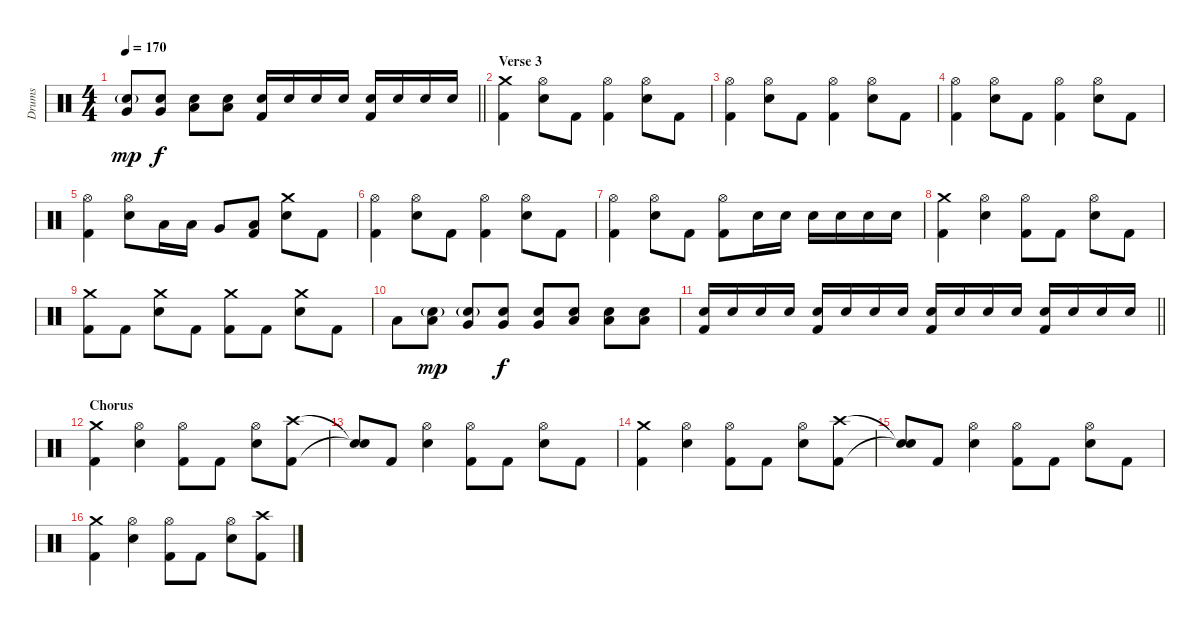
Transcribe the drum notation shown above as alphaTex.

\track ("Drums" "Drums") {instrument percussion}
\staff {score}
\articulation defaults
\ts (4 4)
\tempo 170
\clef neutral
\barLineRight lightlight
\ks c
("Electric Snare (hit)"{g} "Very Low Tom (hit)").8{dy mp} ("Electric Snare (hit)" "Very Low Tom (hit)").8{dy f} ("Electric Snare (hit)" "Low Tom (hit)").8 ("Electric Snare (hit)" "Low Tom (hit)").8 ("Electric Snare (hit)" "Kick (hit) 2").16 "Electric Snare (hit)".16 "Electric Snare (hit)".16 "Electric Snare (hit)".16 ("Electric Snare (hit)" "Kick (hit) 2").16 "Electric Snare (hit)".16 "Electric Snare (hit)".16 "Electric Snare (hit)".16 |
\section ("" "Verse 3")
("Crash medium (hit)" "Kick (hit) 2").4 ("Hi-Hat (open)" "Electric Snare (hit)").8 "Kick (hit) 2".8 ("Hi-Hat (open)" "Kick (hit) 2").4 ("Hi-Hat (open)" "Electric Snare (hit)").8 "Kick (hit) 2".8 |
("Hi-Hat (open)" "Kick (hit) 2").4 ("Hi-Hat (open)" "Electric Snare (hit)").8 "Kick (hit) 2".8 ("Hi-Hat (open)" "Kick (hit) 2").4 ("Hi-Hat (open)" "Electric Snare (hit)").8 "Kick (hit) 2".8 |
("Hi-Hat (open)" "Kick (hit) 2").4 ("Hi-Hat (open)" "Electric Snare (hit)").8 "Kick (hit) 2".8 ("Hi-Hat (open)" "Kick (hit) 2").4 ("Hi-Hat (open)" "Electric Snare (hit)").8 "Kick (hit) 2".8 |
("Hi-Hat (open)" "Kick (hit) 2").4 ("Hi-Hat (open)" "Electric Snare (hit)").8 "Low Tom (hit)".16 "Low Tom (hit)".16 "Very Low Tom (hit)".8 ("Low Floor Tom (hit)" "Kick (hit) 2").8 ("Crash medium (hit)" "Electric Snare (hit)").8 "Kick (hit) 2".8 |
("Hi-Hat (open)" "Kick (hit) 2").4 ("Hi-Hat (open)" "Electric Snare (hit)").8 "Kick (hit) 2".8 ("Hi-Hat (open)" "Kick (hit) 2").4 ("Hi-Hat (open)" "Electric Snare (hit)").8 "Kick (hit) 2".8 |
("Hi-Hat (open)" "Kick (hit) 2").4 ("Hi-Hat (open)" "Electric Snare (hit)").8 "Kick (hit) 2".8 ("Hi-Hat (open)" "Kick (hit) 2").8 "Electric Snare (hit)".16 "Electric Snare (hit)".16 "Electric Snare (hit)".16 "Electric Snare (hit)".16 "Electric Snare (hit)".16 "Electric Snare (hit)".16 |
("Crash medium (hit)" "Kick (hit) 2").4 ("Hi-Hat (open)" "Electric Snare (hit)").4 ("Hi-Hat (open)" "Kick (hit) 2").8 "Kick (hit) 2".8 ("Hi-Hat (open)" "Electric Snare (hit)").8 "Kick (hit) 2".8 |
("Crash medium (hit)" "Kick (hit) 2").8 "Kick (hit) 2".8 ("Crash medium (hit)" "Electric Snare (hit)").8 "Kick (hit) 2".8 ("Crash medium (hit)" "Kick (hit) 2").8 "Kick (hit) 2".8 ("Crash medium (hit)" "Electric Snare (hit)").8 "Kick (hit) 2".8 |
"Low Floor Tom (hit)".8 ("Electric Snare (hit)"{g} "Low Floor Tom (hit)").8{dy mp} ("Electric Snare (hit)"{g} "Very Low Tom (hit)").8 ("Electric Snare (hit)" "Very Low Tom (hit)").8{dy f} ("Electric Snare (hit)" "Very Low Tom (hit)").8 ("Electric Snare (hit)" "Low Tom (hit)").8 ("Electric Snare (hit)" "Low Tom (hit)").8 ("Electric Snare (hit)" "Low Tom (hit)").8 |
\barLineRight lightlight
("Electric Snare (hit)" "Kick (hit) 2").16 "Electric Snare (hit)".16 "Electric Snare (hit)".16 "Electric Snare (hit)".16 ("Electric Snare (hit)" "Kick (hit) 2").16 "Electric Snare (hit)".16 "Electric Snare (hit)".16 "Electric Snare (hit)".16 ("Electric Snare (hit)" "Kick (hit) 2").16 "Electric Snare (hit)".16 "Electric Snare (hit)".16 "Electric Snare (hit)".16 ("Electric Snare (hit)" "Kick (hit) 2").16 "Electric Snare (hit)".16 "Electric Snare (hit)".16 "Electric Snare (hit)".16 |
\section ("" "Chorus")
("Crash medium (hit)" "Kick (hit) 2").4 ("Hi-Hat (open)" "Electric Snare (hit)").4 ("Hi-Hat (open)" "Kick (hit) 2").8 "Kick (hit) 2".8 ("Hi-Hat (open)" "Electric Snare (hit)").8 ("Crash high (hit)" "Kick (hit) 2").8 |
("Snare (hit)"{t} "Snare (hit)"{t}).8 "Kick (hit) 2".8 ("Hi-Hat (open)" "Electric Snare (hit)").4 ("Hi-Hat (open)" "Kick (hit) 2").8 "Kick (hit) 2".8 ("Hi-Hat (open)" "Electric Snare (hit)").8 "Kick (hit) 2".8 |
("Crash medium (hit)" "Kick (hit) 2").4 ("Hi-Hat (open)" "Electric Snare (hit)").4 ("Hi-Hat (open)" "Kick (hit) 2").8 "Kick (hit) 2".8 ("Hi-Hat (open)" "Electric Snare (hit)").8 ("Crash high (hit)" "Kick (hit) 2").8 |
("Snare (hit)"{t} "Snare (hit)"{t}).8 "Kick (hit) 2".8 ("Hi-Hat (open)" "Electric Snare (hit)").4 ("Hi-Hat (open)" "Kick (hit) 2").8 "Kick (hit) 2".8 ("Hi-Hat (open)" "Electric Snare (hit)").8 "Kick (hit) 2".8 |
("Crash medium (hit)" "Kick (hit) 2").4 ("Hi-Hat (open)" "Electric Snare (hit)").4 ("Hi-Hat (open)" "Kick (hit) 2").8 "Kick (hit) 2".8 ("Hi-Hat (open)" "Electric Snare (hit)").8 ("Crash high (hit)" "Kick (hit) 2").8
